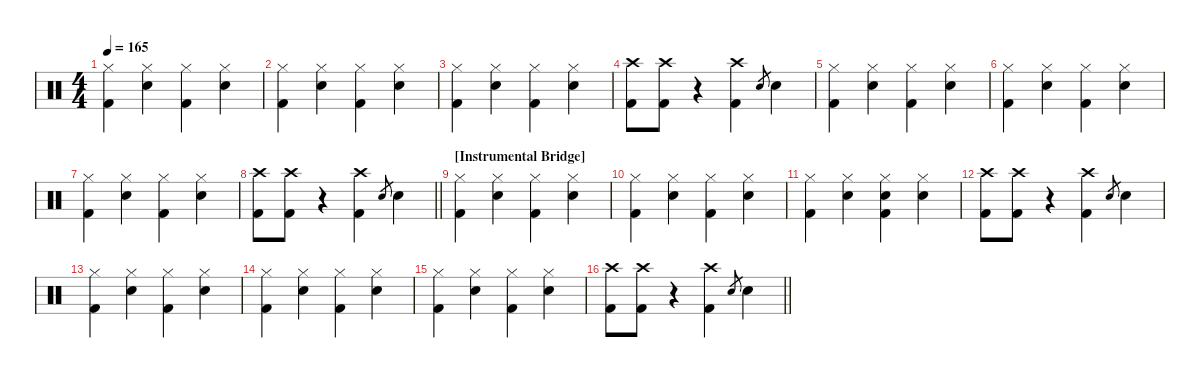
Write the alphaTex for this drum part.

\defaultSystemsLayout 4
\hideDynamics
\bracketExtendMode nobrackets
\singleTrackTrackNamePolicy hidden
\multiTrackTrackNamePolicy hidden
\firstSystemTrackNameMode fullname
\firstSystemTrackNameOrientation horizontal
\otherSystemsTrackNameOrientation horizontal
\track ("drums" "drm.") {instrument percussion}
\staff {score}
\articulation defaults
\ts (4 4)
\tempo 165
\clef neutral
\ks c
("Hi-Hat (closed)" "Kick (hit) 2").4{dy f beam Down} ("Hi-Hat (closed)" "Snare (hit) 2").4{beam Down} ("Hi-Hat (closed)" "Kick (hit) 2").4{beam Down} ("Hi-Hat (closed)" "Snare (hit) 2").4{beam Down} |
("Hi-Hat (closed)" "Kick (hit) 2").4{beam Down} ("Hi-Hat (closed)" "Snare (hit) 2").4{beam Down} ("Hi-Hat (closed)" "Kick (hit) 2").4{beam Down} ("Hi-Hat (closed)" "Snare (hit) 2").4{beam Down} |
("Hi-Hat (closed)" "Kick (hit) 2").4{beam Down} ("Hi-Hat (closed)" "Snare (hit) 2").4{beam Down} ("Hi-Hat (closed)" "Kick (hit) 2").4{beam Down} ("Hi-Hat (closed)" "Snare (hit) 2").4{beam Down} |
("Crash high (hit)" "Kick (hit) 2").8{dy fff beam Down} ("Crash high (hit)" "Kick (hit) 2").8{beam Down} r.4{beam Down} ("Crash high (hit)" "Kick (hit) 2").4{beam Down} "Snare (hit) 2".8{gr dy mf beam Up} "Snare (hit) 2".4{dy f beam Down} |
("Hi-Hat (closed)" "Kick (hit) 2").4{beam Down} ("Hi-Hat (closed)" "Snare (hit) 2").4{beam Down} ("Hi-Hat (closed)" "Kick (hit) 2").4{beam Down} ("Hi-Hat (closed)" "Snare (hit) 2").4{beam Down} |
("Hi-Hat (closed)" "Kick (hit) 2").4{beam Down} ("Hi-Hat (closed)" "Snare (hit) 2").4{beam Down} ("Hi-Hat (closed)" "Kick (hit) 2").4{beam Down} ("Hi-Hat (closed)" "Snare (hit) 2").4{beam Down} |
("Hi-Hat (closed)" "Kick (hit) 2").4{beam Down} ("Hi-Hat (closed)" "Snare (hit) 2").4{beam Down} ("Hi-Hat (closed)" "Kick (hit) 2").4{beam Down} ("Hi-Hat (closed)" "Snare (hit) 2").4{beam Down} |
\barLineRight lightlight
("Crash high (hit)" "Kick (hit) 2").8{dy fff beam Down} ("Crash high (hit)" "Kick (hit) 2").8{beam Down} r.4{beam Down} ("Crash high (hit)" "Kick (hit) 2").4{beam Down} "Snare (hit) 2".8{gr dy mf beam Up} "Snare (hit) 2".4{dy f beam Down} |
\section ("" "[Instrumental Bridge]")
("Hi-Hat (closed)" "Kick (hit) 2").4{beam Down} ("Hi-Hat (closed)" "Snare (hit) 2").4{beam Down} ("Hi-Hat (closed)" "Kick (hit) 2").4{beam Down} ("Hi-Hat (closed)" "Snare (hit) 2").4{beam Down} |
("Hi-Hat (closed)" "Kick (hit) 2").4{beam Down} ("Hi-Hat (closed)" "Snare (hit) 2").4{beam Down} ("Hi-Hat (closed)" "Kick (hit) 2").4{beam Down} ("Hi-Hat (closed)" "Snare (hit) 2").4{beam Down} |
("Hi-Hat (closed)" "Kick (hit) 2").4{beam Down} ("Hi-Hat (closed)" "Snare (hit) 2").4{beam Down} ("Hi-Hat (closed)" "Snare (hit) 2" "Kick (hit) 2").4{beam Down} ("Hi-Hat (closed)" "Snare (hit) 2").4{beam Down} |
("Crash high (hit)" "Kick (hit) 2").8{dy fff beam Down} ("Crash high (hit)" "Kick (hit) 2").8{beam Down} r.4{beam Down} ("Crash high (hit)" "Kick (hit) 2").4{beam Down} "Snare (hit) 2".8{gr dy mf beam Up} "Snare (hit) 2".4{dy f beam Down} |
("Hi-Hat (closed)" "Kick (hit) 2").4{beam Down} ("Hi-Hat (closed)" "Snare (hit) 2").4{beam Down} ("Hi-Hat (closed)" "Kick (hit) 2").4{beam Down} ("Hi-Hat (closed)" "Snare (hit) 2").4{beam Down} |
("Hi-Hat (closed)" "Kick (hit) 2").4{beam Down} ("Hi-Hat (closed)" "Snare (hit) 2").4{beam Down} ("Hi-Hat (closed)" "Kick (hit) 2").4{beam Down} ("Hi-Hat (closed)" "Snare (hit) 2").4{beam Down} |
("Hi-Hat (closed)" "Kick (hit) 2").4{beam Down} ("Hi-Hat (closed)" "Snare (hit) 2").4{beam Down} ("Hi-Hat (closed)" "Kick (hit) 2").4{beam Down} ("Hi-Hat (closed)" "Snare (hit) 2").4{beam Down} |
\barLineRight lightlight
("Crash high (hit)" "Kick (hit) 2").8{dy fff beam Down} ("Crash high (hit)" "Kick (hit) 2").8{beam Down} r.4{beam Down} ("Crash high (hit)" "Kick (hit) 2").4{beam Down} "Snare (hit) 2".8{gr dy mf beam Up} "Snare (hit) 2".4{dy f beam Down}
